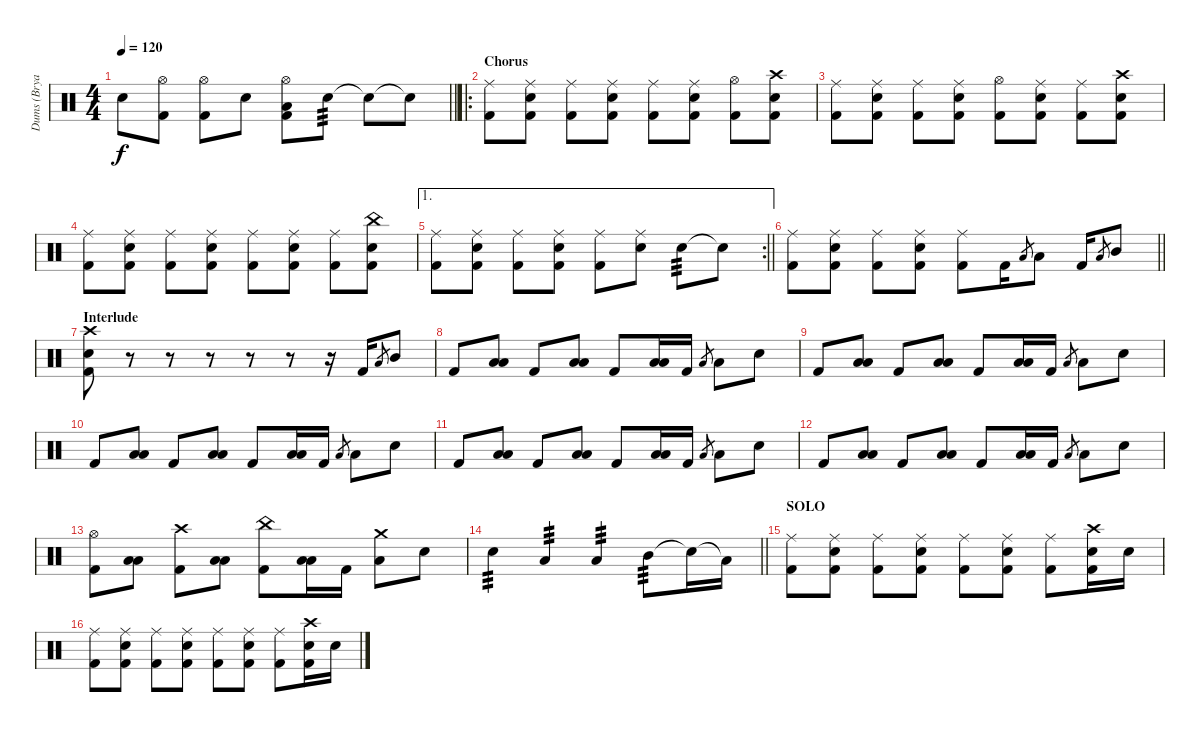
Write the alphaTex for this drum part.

\track ("Dums (Bryar)" "Dums (Brya") {instrument percussion}
\staff {score}
\articulation defaults
\ts (4 4)
\tempo 120
\clef neutral
\barLineRight lightlight
\ks c "Electric Snare (hit)".8{dy f}
("Hi-Hat (open)" "Kick (hit) 2").8 ("Hi-Hat (open)" "Kick (hit) 2").8 "Electric Snare (hit)".8 ("Hi-Hat (open)" "Low Tom (hit)" "Kick (hit) 2").8 "Electric Snare (hit)".8{tp 3} "Snare (hit)"{t}.8 "Snare (hit)"{t}.8 |
\ro
\section ("" "Chorus")
("Ride (middle)" "Kick (hit) 2").8 ("Ride (middle)" "Electric Snare (hit)" "Kick (hit) 2").8 ("Ride (middle)" "Kick (hit) 2").8 ("Ride (middle)" "Electric Snare (hit)" "Kick (hit) 2").8 ("Ride (middle)" "Kick (hit) 2").8 ("Ride (middle)" "Electric Snare (hit)" "Kick (hit) 2").8 ("Hi-Hat (open)" "Kick (hit) 2").8 ("Crash high (hit)" "Electric Snare (hit)" "Kick (hit) 2").8 |
("Ride (middle)" "Kick (hit) 2").8 ("Ride (middle)" "Electric Snare (hit)" "Kick (hit) 2").8 ("Ride (middle)" "Kick (hit) 2").8 ("Ride (middle)" "Electric Snare (hit)" "Kick (hit) 2").8 ("Hi-Hat (open)" "Kick (hit) 2").8 ("Ride (middle)" "Electric Snare (hit)" "Kick (hit) 2").8 ("Ride (middle)" "Kick (hit) 2").8 ("Crash high (hit)" "Electric Snare (hit)" "Kick (hit) 2").8 |
("Ride (middle)" "Kick (hit) 2").8 ("Ride (middle)" "Electric Snare (hit)" "Kick (hit) 2").8 ("Ride (middle)" "Kick (hit) 2").8 ("Ride (middle)" "Electric Snare (hit)" "Kick (hit) 2").8 ("Ride (middle)" "Kick (hit) 2").8 ("Ride (middle)" "Electric Snare (hit)" "Kick (hit) 2").8 ("Ride (middle)" "Kick (hit) 2").8 ("China (hit)" "Electric Snare (hit)" "Kick (hit) 2").8 |
\ae 1
\rc 2
\barLineRight lightlight
("Ride (middle)" "Kick (hit) 2").8 ("Ride (middle)" "Electric Snare (hit)" "Kick (hit) 2").8 ("Ride (middle)" "Kick (hit) 2").8 ("Ride (middle)" "Electric Snare (hit)" "Kick (hit) 2").8 ("Ride (middle)" "Kick (hit) 2").8 ("Ride (middle)" "Electric Snare (hit)").8 "Electric Snare (hit)".8{tp 3} "Electric Snare (hit)"{t}.8 |
\barLineRight lightlight
("Ride (middle)" "Kick (hit) 2").8 ("Ride (middle)" "Electric Snare (hit)" "Kick (hit) 2").8 ("Ride (middle)" "Kick (hit) 2").8 ("Ride (middle)" "Electric Snare (hit)" "Kick (hit) 2").8 ("Ride (middle)" "Kick (hit) 2").8 "Kick (hit) 2".16 "Low Tom (hit)".8{gr} "Low Tom (hit)".8 "Kick (hit) 2".16 "Low Tom (hit)".8{gr} "Mid Tom (hit)".8 |
\section ("" "Interlude")
("Crash high (hit)" "Electric Snare (hit)" "Kick (hit) 2").8 r.8 r.8 r.8 r.8 r.8 r.16 "Kick (hit) 2".16 "Low Tom (hit)".8{gr} "Mid Tom (hit)".8 |
"Kick (hit) 2".8 ("Low Tom (hit)" "Low Floor Tom (hit)").8 "Kick (hit) 2".8 ("Low Tom (hit)" "Low Floor Tom (hit)").8 "Kick (hit) 2".8 ("Low Tom (hit)" "Low Floor Tom (hit)").16 "Kick (hit) 2".16 "Low Floor Tom (hit)".8{gr} "Low Tom (hit)".8 "Electric Snare (hit)".8 |
"Kick (hit) 2".8 ("Low Tom (hit)" "Low Floor Tom (hit)").8 "Kick (hit) 2".8 ("Low Tom (hit)" "Low Floor Tom (hit)").8 "Kick (hit) 2".8 ("Low Tom (hit)" "Low Floor Tom (hit)").16 "Kick (hit) 2".16 "Low Floor Tom (hit)".8{gr} "Low Tom (hit)".8 "Electric Snare (hit)".8 |
"Kick (hit) 2".8 ("Low Tom (hit)" "Low Floor Tom (hit)").8 "Kick (hit) 2".8 ("Low Tom (hit)" "Low Floor Tom (hit)").8 "Kick (hit) 2".8 ("Low Tom (hit)" "Low Floor Tom (hit)").16 "Kick (hit) 2".16 "Low Floor Tom (hit)".8{gr} "Low Tom (hit)".8 "Electric Snare (hit)".8 |
"Kick (hit) 2".8 ("Low Tom (hit)" "Low Floor Tom (hit)").8 "Kick (hit) 2".8 ("Low Tom (hit)" "Low Floor Tom (hit)").8 "Kick (hit) 2".8 ("Low Tom (hit)" "Low Floor Tom (hit)").16 "Kick (hit) 2".16 "Low Floor Tom (hit)".8{gr} "Low Tom (hit)".8 "Electric Snare (hit)".8 |
"Kick (hit) 2".8 ("Low Tom (hit)" "Low Floor Tom (hit)").8 "Kick (hit) 2".8 ("Low Tom (hit)" "Low Floor Tom (hit)").8 "Kick (hit) 2".8 ("Low Tom (hit)" "Low Floor Tom (hit)").16 "Kick (hit) 2".16 "Low Floor Tom (hit)".8{gr} "Low Tom (hit)".8 "Electric Snare (hit)".8 |
("Hi-Hat (open)" "Kick (hit) 2").8 ("Low Tom (hit)" "Low Floor Tom (hit)").8 ("Crash high (hit)" "Kick (hit) 2").8 ("Low Tom (hit)" "Low Floor Tom (hit)").8 ("China (hit)" "Kick (hit) 2").8 ("Low Tom (hit)" "Low Floor Tom (hit)").16 "Kick (hit) 2".16 ("Crash medium (hit)" "Low Tom (hit)").8 "Electric Snare (hit)".8 |
\barLineRight lightlight "Electric Snare (hit)".4{tp 3} "Low Floor Tom (hit)".4{tp 3} "Low Tom (hit)".4{tp 3} "Mid Tom (hit)".8{tp 3} "Snare (hit)"{t}.16 "Low Tom (hit)"{t}.16
|
\section ("" "SOLO")
("Ride (middle)" "Kick (hit) 2").8 ("Ride (middle)" "Electric Snare (hit)" "Kick (hit) 2").8 ("Ride (middle)" "Kick (hit) 2").8 ("Ride (middle)" "Electric Snare (hit)" "Kick (hit) 2").8 ("Ride (middle)" "Kick (hit) 2").8 ("Ride (middle)" "Electric Snare (hit)" "Kick (hit) 2").8 ("Ride (middle)" "Kick (hit) 2").8 ("Crash high (hit)" "Electric Snare (hit)" "Kick (hit) 2").16 "Electric Snare (hit)".16 |
("Ride (middle)" "Kick (hit) 2").8 ("Ride (middle)" "Electric Snare (hit)" "Kick (hit) 2").8 ("Ride (middle)" "Kick (hit) 2").8 ("Ride (middle)" "Electric Snare (hit)" "Kick (hit) 2").8 ("Ride (middle)" "Kick (hit) 2").8 ("Ride (middle)" "Electric Snare (hit)" "Kick (hit) 2").8 ("Ride (middle)" "Kick (hit) 2").8 ("Crash high (hit)" "Electric Snare (hit)" "Kick (hit) 2").16 "Electric Snare (hit)".16
